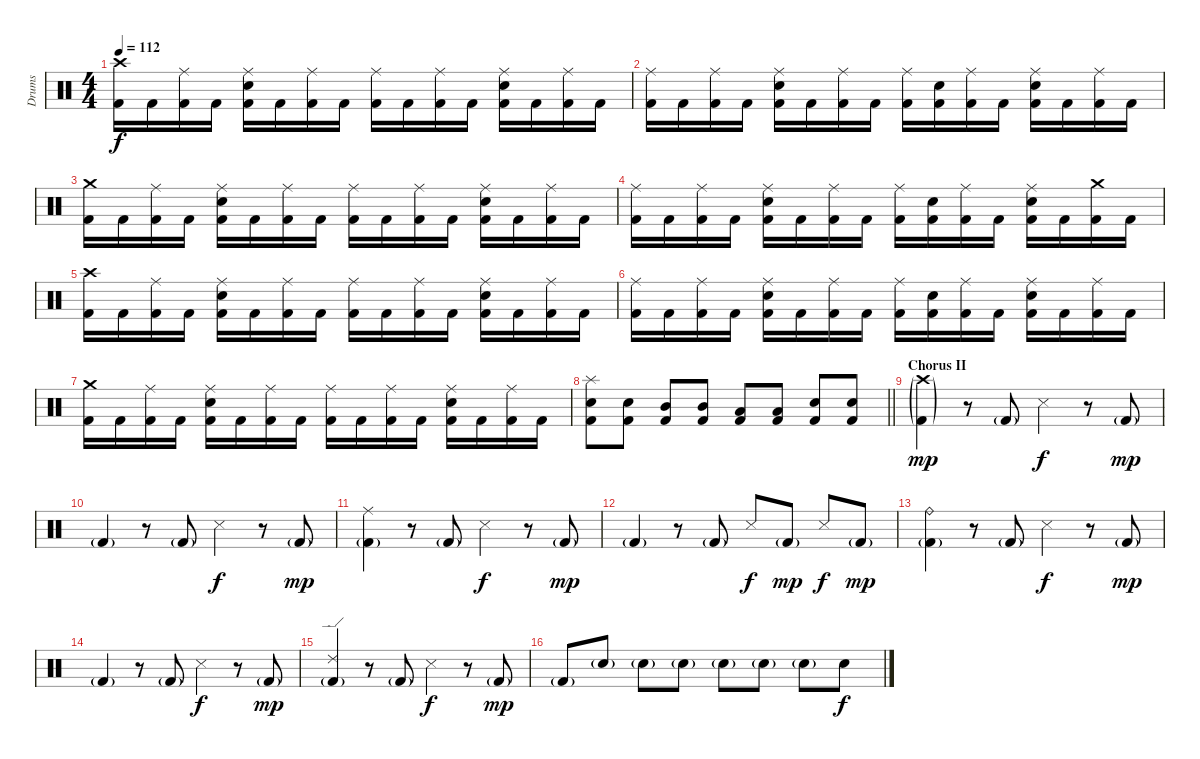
\track ("Drums" "Drums") {instrument percussion}
\staff {score}
\articulation defaults
\ts (4 4)
\tempo 112
\clef neutral
\ks c
("Crash high (hit)" "Kick (hit) 2").16{dy f} "Kick (hit) 2".16 ("Ride (middle)" "Kick (hit) 2").16 "Kick (hit) 2".16 ("Ride (middle)" "Electric Snare (hit)" "Kick (hit) 2").16 "Kick (hit) 2".16 ("Ride (middle)" "Kick (hit) 2").16 "Kick (hit) 2".16 ("Ride (middle)" "Kick (hit) 2").16 "Kick (hit) 2".16 ("Ride (middle)" "Kick (hit) 2").16 "Kick (hit) 2".16 ("Ride (middle)" "Electric Snare (hit)" "Kick (hit) 2").16 "Kick (hit) 2".16 ("Ride (middle)" "Kick (hit) 2").16 "Kick (hit) 2".16 |
("Ride (middle)" "Kick (hit) 2").16 "Kick (hit) 2".16 ("Ride (middle)" "Kick (hit) 2").16 "Kick (hit) 2".16 ("Ride (middle)" "Electric Snare (hit)" "Kick (hit) 2").16 "Kick (hit) 2".16 ("Ride (middle)" "Kick (hit) 2").16 "Kick (hit) 2".16 ("Ride (middle)" "Kick (hit) 2").16 ("Electric Snare (hit)" "Kick (hit) 2").16 ("Ride (middle)" "Kick (hit) 2").16 "Kick (hit) 2".16 ("Ride (middle)" "Electric Snare (hit)" "Kick (hit) 2").16 "Kick (hit) 2".16 ("Ride (middle)" "Kick (hit) 2").16 "Kick (hit) 2".16 |
("Crash medium (hit)" "Kick (hit) 2").16 "Kick (hit) 2".16 ("Ride (middle)" "Kick (hit) 2").16 "Kick (hit) 2".16 ("Ride (middle)" "Electric Snare (hit)" "Kick (hit) 2").16 "Kick (hit) 2".16 ("Ride (middle)" "Kick (hit) 2").16 "Kick (hit) 2".16 ("Ride (middle)" "Kick (hit) 2").16 "Kick (hit) 2".16 ("Ride (middle)" "Kick (hit) 2").16 "Kick (hit) 2".16 ("Ride (middle)" "Electric Snare (hit)" "Kick (hit) 2").16 "Kick (hit) 2".16 ("Ride (middle)" "Kick (hit) 2").16 "Kick (hit) 2".16 |
("Ride (middle)" "Kick (hit) 2").16 "Kick (hit) 2".16 ("Ride (middle)" "Kick (hit) 2").16 "Kick (hit) 2".16 ("Ride (middle)" "Electric Snare (hit)" "Kick (hit) 2").16 "Kick (hit) 2".16 ("Ride (middle)" "Kick (hit) 2").16 "Kick (hit) 2".16 ("Ride (middle)" "Kick (hit) 2").16 ("Electric Snare (hit)" "Kick (hit) 2").16 ("Ride (middle)" "Kick (hit) 2").16 "Kick (hit) 2".16 ("Ride (middle)" "Electric Snare (hit)" "Kick (hit) 2").16 "Kick (hit) 2".16 ("Crash medium (hit)" "Kick (hit) 2").16 "Kick (hit) 2".16 |
("Crash high (hit)" "Kick (hit) 2").16 "Kick (hit) 2".16 ("Ride (middle)" "Kick (hit) 2").16 "Kick (hit) 2".16 ("Ride (middle)" "Electric Snare (hit)" "Kick (hit) 2").16 "Kick (hit) 2".16 ("Ride (middle)" "Kick (hit) 2").16 "Kick (hit) 2".16 ("Ride (middle)" "Kick (hit) 2").16 "Kick (hit) 2".16 ("Ride (middle)" "Kick (hit) 2").16 "Kick (hit) 2".16 ("Ride (middle)" "Electric Snare (hit)" "Kick (hit) 2").16 "Kick (hit) 2".16 ("Ride (middle)" "Kick (hit) 2").16 "Kick (hit) 2".16 |
("Ride (middle)" "Kick (hit) 2").16 "Kick (hit) 2".16 ("Ride (middle)" "Kick (hit) 2").16 "Kick (hit) 2".16 ("Ride (middle)" "Electric Snare (hit)" "Kick (hit) 2").16 "Kick (hit) 2".16 ("Ride (middle)" "Kick (hit) 2").16 "Kick (hit) 2".16 ("Ride (middle)" "Kick (hit) 2").16 ("Electric Snare (hit)" "Kick (hit) 2").16 ("Ride (middle)" "Kick (hit) 2").16 "Kick (hit) 2".16 ("Ride (middle)" "Electric Snare (hit)" "Kick (hit) 2").16 "Kick (hit) 2".16 ("Ride (middle)" "Kick (hit) 2").16 "Kick (hit) 2".16 |
("Crash medium (hit)" "Kick (hit) 2").16 "Kick (hit) 2".16 ("Ride (middle)" "Kick (hit) 2").16 "Kick (hit) 2".16 ("Ride (middle)" "Electric Snare (hit)" "Kick (hit) 2").16 "Kick (hit) 2".16 ("Ride (middle)" "Kick (hit) 2").16 "Kick (hit) 2".16 ("Ride (middle)" "Kick (hit) 2").16 "Kick (hit) 2".16 ("Ride (middle)" "Kick (hit) 2").16 "Kick (hit) 2".16 ("Ride (middle)" "Electric Snare (hit)" "Kick (hit) 2").16 "Kick (hit) 2".16 ("Ride (middle)" "Kick (hit) 2").16 "Kick (hit) 2".16 |
\barLineRight lightlight
("Splash (hit)" "Electric Snare (hit)" "Kick (hit) 2").8 ("Electric Snare (hit)" "Kick (hit) 2").8 ("Mid Tom (hit)" "Kick (hit) 2").8 ("Mid Tom (hit)" "Kick (hit) 2").8 ("Low Tom (hit)" "Kick (hit) 2").8 ("Low Tom (hit)" "Kick (hit) 2").8 ("Electric Snare (hit)" "Kick (hit) 2").8 ("Electric Snare (hit)" "Kick (hit) 2").8 |
\section ("" "Chorus II")
("Crash high (hit)"{g} "Kick (hit) 2"{g}).4{dy mp} r.8 "Kick (hit) 2"{g}.8 "Snare (side stick) 3".4{dy f} r.8 "Kick (hit) 2"{g}.8{dy mp} |
"Kick (hit) 2"{g}.4 r.8 "Kick (hit) 2"{g}.8 "Snare (side stick) 3".4{dy f} r.8 "Kick (hit) 2"{g}.8{dy mp} |
("Ride (middle)" "Kick (hit) 2"{g}).4 r.8 "Kick (hit) 2"{g}.8 "Snare (side stick) 3".4{dy f} r.8 "Kick (hit) 2"{g}.8{dy mp} |
"Kick (hit) 2"{g}.4 r.8 "Kick (hit) 2"{g}.8 "Snare (side stick) 3".8{dy f} "Kick (hit) 2"{g}.8{dy mp} "Snare (side stick) 3".8{dy f} "Kick (hit) 2"{g}.8{dy mp} |
("Ride (bell)" "Kick (hit) 2"{g}).4 r.8 "Kick (hit) 2"{g}.8 "Snare (side stick) 3".4{dy f} r.8 "Kick (hit) 2"{g}.8{dy mp} |
"Kick (hit) 2"{g}.4 r.8 "Kick (hit) 2"{g}.8 "Snare (side stick) 3".4{dy f} r.8 "Kick (hit) 2"{g}.8{dy mp} |
("Ride (edge) 2" "Kick (hit) 2"{g}).4 r.8 "Kick (hit) 2"{g}.8 "Snare (side stick) 3".4{dy f} r.8 "Kick (hit) 2"{g}.8{dy mp} |
"Kick (hit) 2"{g}.8 "Electric Snare (hit)"{g}.8 "Electric Snare (hit)"{g}.8 "Electric Snare (hit)"{g}.8 "Electric Snare (hit)"{g}.8 "Electric Snare (hit)"{g}.8 "Electric Snare (hit)"{g}.8 "Electric Snare (hit)".8{dy f}
